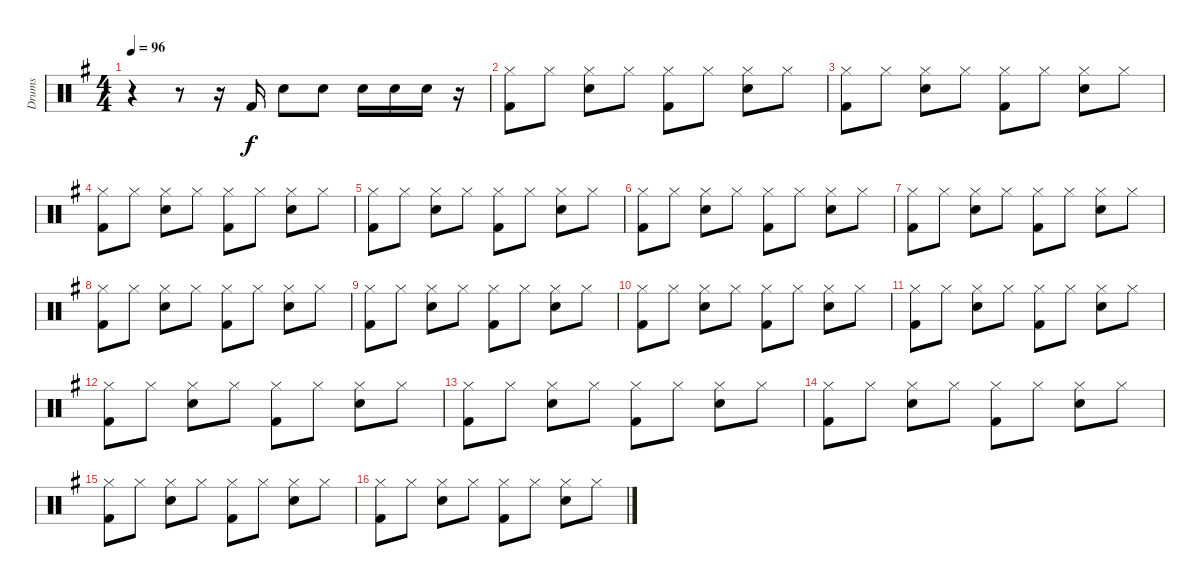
\track ("Drums" "Drums") {instrument percussion}
\staff {score}
\articulation defaults
\ts (4 4)
\tempo 96
\clef neutral
\ks eminor
r.4{dy f} r.8 r.16 "Kick (hit) 2".16 "Snare (hit) 2".8 "Snare (hit) 2".8 "Snare (hit) 2".16 "Snare (hit) 2".16 "Snare (hit) 2".16 r.16 |
("Hi-Hat (closed)" "Kick (hit) 2").8 "Hi-Hat (closed)".8 ("Hi-Hat (closed)" "Snare (hit) 2").8 "Hi-Hat (closed)".8 ("Hi-Hat (closed)" "Kick (hit) 2").8 "Hi-Hat (closed)".8 ("Hi-Hat (closed)" "Snare (hit) 2").8 "Hi-Hat (closed)".8 |
("Hi-Hat (closed)" "Kick (hit) 2").8 "Hi-Hat (closed)".8 ("Hi-Hat (closed)" "Snare (hit) 2").8 "Hi-Hat (closed)".8 ("Hi-Hat (closed)" "Kick (hit) 2").8 "Hi-Hat (closed)".8 ("Hi-Hat (closed)" "Snare (hit) 2").8 "Hi-Hat (closed)".8 |
("Hi-Hat (closed)" "Kick (hit) 2").8 "Hi-Hat (closed)".8 ("Hi-Hat (closed)" "Snare (hit) 2").8 "Hi-Hat (closed)".8 ("Hi-Hat (closed)" "Kick (hit) 2").8 "Hi-Hat (closed)".8 ("Hi-Hat (closed)" "Snare (hit) 2").8 "Hi-Hat (closed)".8 |
("Hi-Hat (closed)" "Kick (hit) 2").8 "Hi-Hat (closed)".8 ("Hi-Hat (closed)" "Snare (hit) 2").8 "Hi-Hat (closed)".8 ("Hi-Hat (closed)" "Kick (hit) 2").8 "Hi-Hat (closed)".8 ("Hi-Hat (closed)" "Snare (hit) 2").8 "Hi-Hat (closed)".8 |
("Hi-Hat (closed)" "Kick (hit) 2").8 "Hi-Hat (closed)".8 ("Hi-Hat (closed)" "Snare (hit) 2").8 "Hi-Hat (closed)".8 ("Hi-Hat (closed)" "Kick (hit) 2").8 "Hi-Hat (closed)".8 ("Hi-Hat (closed)" "Snare (hit) 2").8 "Hi-Hat (closed)".8 |
("Hi-Hat (closed)" "Kick (hit) 2").8 "Hi-Hat (closed)".8 ("Hi-Hat (closed)" "Snare (hit) 2").8 "Hi-Hat (closed)".8 ("Hi-Hat (closed)" "Kick (hit) 2").8 "Hi-Hat (closed)".8 ("Hi-Hat (closed)" "Snare (hit) 2").8 "Hi-Hat (closed)".8 |
("Hi-Hat (closed)" "Kick (hit) 2").8 "Hi-Hat (closed)".8 ("Hi-Hat (closed)" "Snare (hit) 2").8 "Hi-Hat (closed)".8 ("Hi-Hat (closed)" "Kick (hit) 2").8 "Hi-Hat (closed)".8 ("Hi-Hat (closed)" "Snare (hit) 2").8 "Hi-Hat (closed)".8 |
("Hi-Hat (closed)" "Kick (hit) 2").8 "Hi-Hat (closed)".8 ("Hi-Hat (closed)" "Snare (hit) 2").8 "Hi-Hat (closed)".8 ("Hi-Hat (closed)" "Kick (hit) 2").8 "Hi-Hat (closed)".8 ("Hi-Hat (closed)" "Snare (hit) 2").8 "Hi-Hat (closed)".8 |
("Hi-Hat (closed)" "Kick (hit) 2").8 "Hi-Hat (closed)".8 ("Hi-Hat (closed)" "Snare (hit) 2").8 "Hi-Hat (closed)".8 ("Hi-Hat (closed)" "Kick (hit) 2").8 "Hi-Hat (closed)".8 ("Hi-Hat (closed)" "Snare (hit) 2").8 "Hi-Hat (closed)".8 |
("Hi-Hat (closed)" "Kick (hit) 2").8 "Hi-Hat (closed)".8 ("Hi-Hat (closed)" "Snare (hit) 2").8 "Hi-Hat (closed)".8 ("Hi-Hat (closed)" "Kick (hit) 2").8 "Hi-Hat (closed)".8 ("Hi-Hat (closed)" "Snare (hit) 2").8 "Hi-Hat (closed)".8 |
("Hi-Hat (closed)" "Kick (hit) 2").8 "Hi-Hat (closed)".8 ("Hi-Hat (closed)" "Snare (hit) 2").8 "Hi-Hat (closed)".8 ("Hi-Hat (closed)" "Kick (hit) 2").8 "Hi-Hat (closed)".8 ("Hi-Hat (closed)" "Snare (hit) 2").8 "Hi-Hat (closed)".8 |
("Hi-Hat (closed)" "Kick (hit) 2").8 "Hi-Hat (closed)".8 ("Hi-Hat (closed)" "Snare (hit) 2").8 "Hi-Hat (closed)".8 ("Hi-Hat (closed)" "Kick (hit) 2").8 "Hi-Hat (closed)".8 ("Hi-Hat (closed)" "Snare (hit) 2").8 "Hi-Hat (closed)".8 |
("Hi-Hat (closed)" "Kick (hit) 2").8 "Hi-Hat (closed)".8 ("Hi-Hat (closed)" "Snare (hit) 2").8 "Hi-Hat (closed)".8 ("Hi-Hat (closed)" "Kick (hit) 2").8 "Hi-Hat (closed)".8 ("Hi-Hat (closed)" "Snare (hit) 2").8 "Hi-Hat (closed)".8 |
("Hi-Hat (closed)" "Kick (hit) 2").8 "Hi-Hat (closed)".8 ("Hi-Hat (closed)" "Snare (hit) 2").8 "Hi-Hat (closed)".8 ("Hi-Hat (closed)" "Kick (hit) 2").8 "Hi-Hat (closed)".8 ("Hi-Hat (closed)" "Snare (hit) 2").8 "Hi-Hat (closed)".8 |
("Hi-Hat (closed)" "Kick (hit) 2").8 "Hi-Hat (closed)".8 ("Hi-Hat (closed)" "Snare (hit) 2").8 "Hi-Hat (closed)".8 ("Hi-Hat (closed)" "Kick (hit) 2").8 "Hi-Hat (closed)".8 ("Hi-Hat (closed)" "Snare (hit) 2").8 "Hi-Hat (closed)".8
